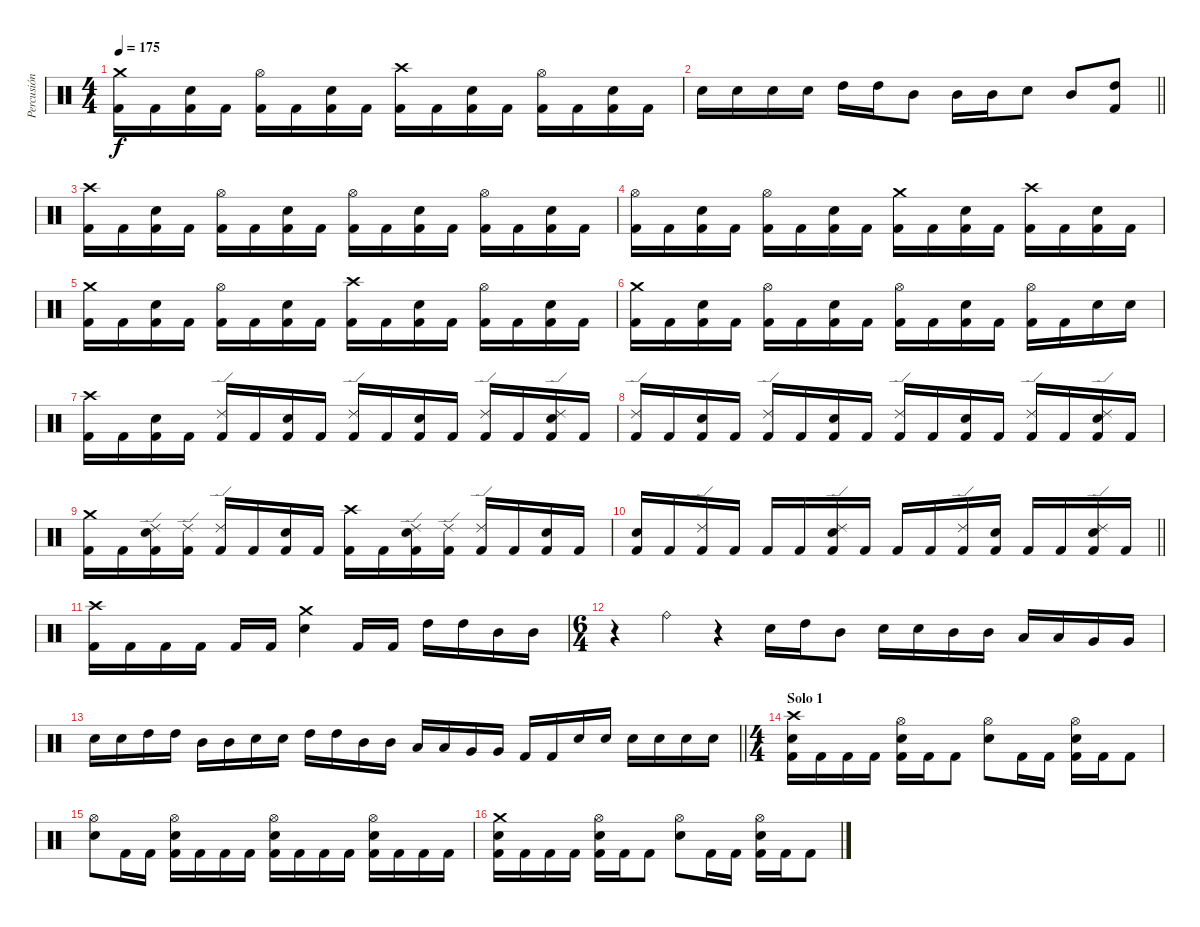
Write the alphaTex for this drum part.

\track ("Percusión" "Percusión") {instrument percussion}
\staff {score}
\articulation defaults
\ts (4 4)
\tempo 175
\clef neutral
\ks c
("Crash medium (hit)" "Kick (hit) 2").16{dy f} "Kick (hit) 2".16 ("Snare (hit) 2" "Kick (hit) 2").16 "Kick (hit) 2".16 ("Hi-Hat (open)" "Kick (hit) 2").16 "Kick (hit) 2".16 ("Snare (hit) 2" "Kick (hit) 2").16 "Kick (hit) 2".16 ("Crash high (hit)" "Kick (hit) 2").16 "Kick (hit) 2".16 ("Snare (hit) 2" "Kick (hit) 2").16 "Kick (hit) 2".16 ("Hi-Hat (open)" "Kick (hit) 2").16 "Kick (hit) 2".16 ("Snare (hit) 2" "Kick (hit) 2").16 "Kick (hit) 2".16 |
\barLineRight lightlight "Snare (hit) 2".16 "Snare (hit) 2".16 "Snare (hit) 2".16 "Snare (hit) 2".16 "High Tom (hit)".16 "High Tom (hit)".16 "Mid Tom (hit)".8 "Mid Tom (hit)".16 "Mid Tom (hit)".16 "Snare (hit) 2".8 "Mid Tom (hit)".8
("High Tom (hit)" "Kick (hit) 2").8 |
\section ("" "")
("Crash high (hit)" "Kick (hit) 2").16 "Kick (hit) 2".16 ("Snare (hit) 2" "Kick (hit) 2").16 "Kick (hit) 2".16 ("Hi-Hat (open)" "Kick (hit) 2").16 "Kick (hit) 2".16 ("Snare (hit) 2" "Kick (hit) 2").16 "Kick (hit) 2".16 ("Hi-Hat (open)" "Kick (hit) 2").16 "Kick (hit) 2".16 ("Snare (hit) 2" "Kick (hit) 2").16 "Kick (hit) 2".16 ("Hi-Hat (open)" "Kick (hit) 2").16 "Kick (hit) 2".16 ("Snare (hit) 2" "Kick (hit) 2").16 "Kick (hit) 2".16 |
("Hi-Hat (open)" "Kick (hit) 2").16 "Kick (hit) 2".16 ("Snare (hit) 2" "Kick (hit) 2").16 "Kick (hit) 2".16 ("Hi-Hat (open)" "Kick (hit) 2").16 "Kick (hit) 2".16 ("Snare (hit) 2" "Kick (hit) 2").16 "Kick (hit) 2".16 ("Crash medium (hit)" "Kick (hit) 2").16 "Kick (hit) 2".16 ("Snare (hit) 2" "Kick (hit) 2").16 "Kick (hit) 2".16 ("Crash high (hit)" "Kick (hit) 2").16 "Kick (hit) 2".16 ("Snare (hit) 2" "Kick (hit) 2").16 "Kick (hit) 2".16 |
("Crash medium (hit)" "Kick (hit) 2").16 "Kick (hit) 2".16 ("Snare (hit) 2" "Kick (hit) 2").16 "Kick (hit) 2".16 ("Hi-Hat (open)" "Kick (hit) 2").16 "Kick (hit) 2".16 ("Snare (hit) 2" "Kick (hit) 2").16 "Kick (hit) 2".16 ("Crash high (hit)" "Kick (hit) 2").16 "Kick (hit) 2".16 ("Snare (hit) 2" "Kick (hit) 2").16 "Kick (hit) 2".16 ("Hi-Hat (open)" "Kick (hit) 2").16 "Kick (hit) 2".16 ("Snare (hit) 2" "Kick (hit) 2").16 "Kick (hit) 2".16 |
("Crash medium (hit)" "Kick (hit) 2").16 "Kick (hit) 2".16 ("Snare (hit) 2" "Kick (hit) 2").16 "Kick (hit) 2".16 ("Hi-Hat (open)" "Kick (hit) 2").16 "Kick (hit) 2".16 ("Snare (hit) 2" "Kick (hit) 2").16 "Kick (hit) 2".16 ("Hi-Hat (open)" "Kick (hit) 2").16 "Kick (hit) 2".16 ("Snare (hit) 2" "Kick (hit) 2").16 "Kick (hit) 2".16 ("Hi-Hat (open)" "Kick (hit) 2").16 "Kick (hit) 2".16 "Snare (hit) 2".16 "Snare (hit) 2".16 |
("Crash high (hit)" "Kick (hit) 2").16 "Kick (hit) 2".16 ("Snare (hit) 2" "Kick (hit) 2").16 "Kick (hit) 2".16 ("Ride (edge) 2" "Kick (hit) 2").16 "Kick (hit) 2".16 ("Snare (hit) 2" "Kick (hit) 2").16 "Kick (hit) 2".16 ("Ride (edge) 2" "Kick (hit) 2").16 "Kick (hit) 2".16 ("Snare (hit) 2" "Kick (hit) 2").16 "Kick (hit) 2".16 ("Ride (edge) 2" "Kick (hit) 2").16 "Kick (hit) 2".16 ("Ride (edge) 2" "Snare (hit) 2" "Kick (hit) 2").16 "Kick (hit) 2".16 |
("Ride (edge) 2" "Kick (hit) 2").16 "Kick (hit) 2".16 ("Snare (hit) 2" "Kick (hit) 2").16 "Kick (hit) 2".16 ("Ride (edge) 2" "Kick (hit) 2").16 "Kick (hit) 2".16 ("Snare (hit) 2" "Kick (hit) 2").16 "Kick (hit) 2".16 ("Ride (edge) 2" "Kick (hit) 2").16 "Kick (hit) 2".16 ("Snare (hit) 2" "Kick (hit) 2").16 "Kick (hit) 2".16 ("Ride (edge) 2" "Kick (hit) 2").16 "Kick (hit) 2".16 ("Ride (edge) 2" "Snare (hit) 2" "Kick (hit) 2").16 "Kick (hit) 2".16 |
("Crash medium (hit)" "Kick (hit) 2").16 "Kick (hit) 2".16 ("Ride (edge) 2" "Snare (hit) 2" "Kick (hit) 2").16 ("Ride (edge) 2" "Kick (hit) 2").16 ("Ride (edge) 2" "Kick (hit) 2").16 "Kick (hit) 2".16 ("Snare (hit) 2" "Kick (hit) 2").16 "Kick (hit) 2".16 ("Crash high (hit)" "Kick (hit) 2").16 "Kick (hit) 2".16 ("Ride (edge) 2" "Snare (hit) 2" "Kick (hit) 2").16 ("Ride (edge) 2" "Kick (hit) 2").16 ("Ride (edge) 2" "Kick (hit) 2").16 "Kick (hit) 2".16 ("Snare (hit) 2" "Kick (hit) 2").16 "Kick (hit) 2".16 |
\barLineRight lightlight
("Snare (hit) 2" "Kick (hit) 2").16 "Kick (hit) 2".16 ("Ride (edge) 2" "Kick (hit) 2").16 "Kick (hit) 2".16 "Kick (hit) 2".16 "Kick (hit) 2".16 ("Ride (edge) 2" "Snare (hit) 2" "Kick (hit) 2").16 "Kick (hit) 2".16 "Kick (hit) 2".16 "Kick (hit) 2".16 ("Ride (edge) 2" "Kick (hit) 2").16 ("Snare (hit) 2" "Kick (hit) 2").16 "Kick (hit) 2".16 "Kick (hit) 2".16 ("Ride (edge) 2" "Snare (hit) 2" "Kick (hit) 2").16 "Kick (hit) 2".16 |
\section ("" "")
("Crash high (hit)" "Kick (hit) 2").16 "Kick (hit) 2".16 "Kick (hit) 2".16 "Kick (hit) 2".16 "Kick (hit) 2".16 "Kick (hit) 2".16 ("Crash medium (hit)" "Snare (hit) 2").4 "Kick (hit) 2".16 "Kick (hit) 2".16 "High Tom (hit)".16 "High Tom (hit)".16 "Mid Tom (hit)".16 "Mid Tom (hit)".16 |
\ts (6 4)
r.4 "Ride (bell)".4 r.4 "Snare (hit) 2".16 "High Tom (hit)".16 "Mid Tom (hit)".8 "Snare (hit) 2".16 "Snare (hit) 2".16 "Mid Tom (hit)".16 "Mid Tom (hit)".16 "Low Tom (hit)".16 "Low Tom (hit)".16 "Very Low Tom (hit)".16 "Very Low Tom (hit)".16 |
\barLineRight lightlight "Snare (hit) 2".16 "Snare (hit) 2".16 "High Tom (hit)".16 "High Tom (hit)".16 "Mid Tom (hit)".16 "Mid Tom (hit)".16 "Snare (hit) 2".16 "Snare (hit) 2".16 "High Tom (hit)".16 "High Tom (hit)".16 "Mid Tom (hit)".16 "Mid Tom (hit)".16 "Low Tom (hit)".16 "Low Tom (hit)".16 "Very Low Tom (hit)".16 "Very Low Tom (hit)".16 "Kick (hit) 2".16 "Kick (hit) 2".16 "Snare (hit) 2".16 "Snare (hit) 2".16 "Snare (hit) 2".16 "Snare (hit) 2".16 "Snare (hit) 2".16 "Snare (hit) 2".16
|
\ts (4 4)
\section ("" "Solo 1")
("Crash high (hit)" "Snare (hit) 2" "Kick (hit) 2").16 "Kick (hit) 2".16 "Kick (hit) 2".16 "Kick (hit) 2".16 ("Hi-Hat (open)" "Snare (hit) 2" "Kick (hit) 2").16 "Kick (hit) 2".16 "Kick (hit) 2".8 ("Hi-Hat (open)" "Snare (hit) 2").8 "Kick (hit) 2".16 "Kick (hit) 2".16 ("Hi-Hat (open)" "Snare (hit) 2" "Kick (hit) 2").16 "Kick (hit) 2".16 "Kick (hit) 2".8 |
("Hi-Hat (open)" "Snare (hit) 2").8 "Kick (hit) 2".16 "Kick (hit) 2".16 ("Hi-Hat (open)" "Snare (hit) 2" "Kick (hit) 2").16 "Kick (hit) 2".16 "Kick (hit) 2".16 "Kick (hit) 2".16 ("Hi-Hat (open)" "Snare (hit) 2" "Kick (hit) 2").16 "Kick (hit) 2".16 "Kick (hit) 2".16 "Kick (hit) 2".16 ("Hi-Hat (open)" "Snare (hit) 2" "Kick (hit) 2").16 "Kick (hit) 2".16 "Kick (hit) 2".16 "Kick (hit) 2".16 |
("Crash medium (hit)" "Snare (hit) 2" "Kick (hit) 2").16 "Kick (hit) 2".16 "Kick (hit) 2".16 "Kick (hit) 2".16 ("Hi-Hat (open)" "Snare (hit) 2" "Kick (hit) 2").16 "Kick (hit) 2".16 "Kick (hit) 2".8 ("Hi-Hat (open)" "Snare (hit) 2").8 "Kick (hit) 2".16 "Kick (hit) 2".16 ("Hi-Hat (open)" "Snare (hit) 2" "Kick (hit) 2").16 "Kick (hit) 2".16 "Kick (hit) 2".8
